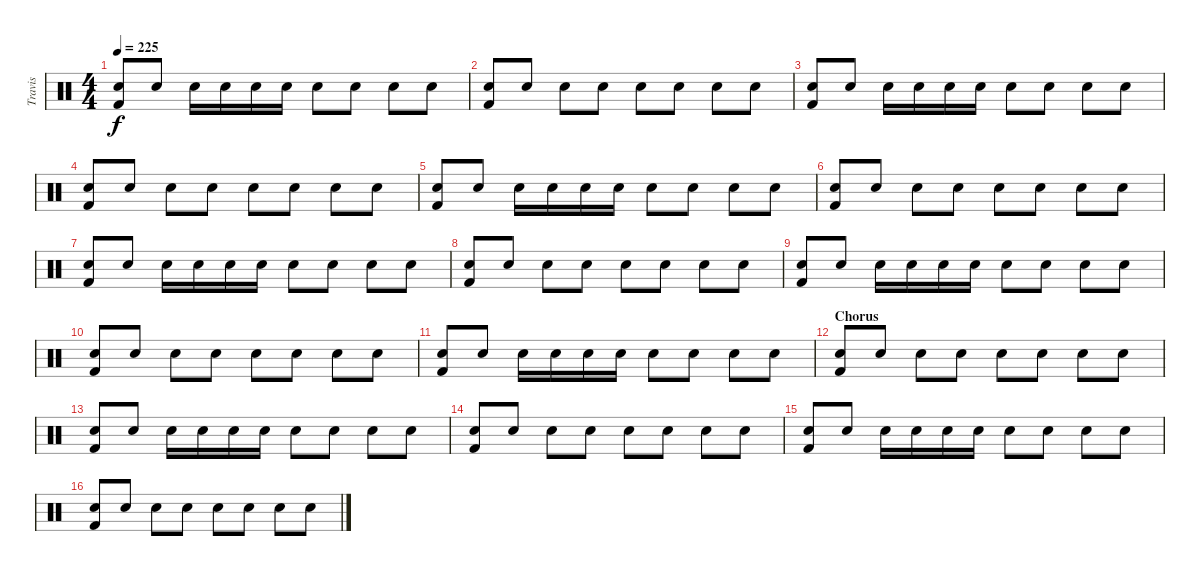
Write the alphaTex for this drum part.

\track ("Travis" "Travis") {instrument percussion}
\staff {score}
\articulation defaults
\ts (4 4)
\tempo 225
\clef neutral
\ks c
("Snare (hit) 2" "Kick (hit) 2").8{dy f} "Snare (hit) 2".8 "Snare (hit) 2".16 "Snare (hit) 2".16 "Snare (hit) 2".16 "Snare (hit) 2".16 "Electric Snare (hit)".8 "Electric Snare (hit)".8 "Snare (hit) 2".8 "Snare (hit) 2".8 |
("Snare (hit) 2" "Kick (hit) 2").8 "Snare (hit) 2".8 "Snare (hit) 2".8 "Electric Snare (hit)".8 "Snare (hit) 2".8 "Snare (hit) 2".8 "Electric Snare (hit)".8 "Snare (hit) 2".8 |
("Snare (hit) 2" "Kick (hit) 2").8 "Snare (hit) 2".8 "Snare (hit) 2".16 "Snare (hit) 2".16 "Snare (hit) 2".16 "Snare (hit) 2".16 "Electric Snare (hit)".8 "Electric Snare (hit)".8 "Snare (hit) 2".8 "Snare (hit) 2".8 |
("Snare (hit) 2" "Kick (hit) 2").8 "Snare (hit) 2".8 "Snare (hit) 2".8 "Electric Snare (hit)".8 "Snare (hit) 2".8 "Snare (hit) 2".8 "Electric Snare (hit)".8 "Snare (hit) 2".8 |
("Snare (hit) 2" "Kick (hit) 2").8 "Snare (hit) 2".8 "Snare (hit) 2".16 "Snare (hit) 2".16 "Snare (hit) 2".16 "Snare (hit) 2".16 "Electric Snare (hit)".8 "Electric Snare (hit)".8 "Snare (hit) 2".8 "Snare (hit) 2".8 |
("Snare (hit) 2" "Kick (hit) 2").8 "Snare (hit) 2".8 "Snare (hit) 2".8 "Electric Snare (hit)".8 "Snare (hit) 2".8 "Snare (hit) 2".8 "Electric Snare (hit)".8 "Snare (hit) 2".8 |
("Snare (hit) 2" "Kick (hit) 2").8 "Snare (hit) 2".8 "Snare (hit) 2".16 "Snare (hit) 2".16 "Snare (hit) 2".16 "Snare (hit) 2".16 "Electric Snare (hit)".8 "Electric Snare (hit)".8 "Snare (hit) 2".8 "Snare (hit) 2".8 |
("Snare (hit) 2" "Kick (hit) 2").8 "Snare (hit) 2".8 "Snare (hit) 2".8 "Electric Snare (hit)".8 "Snare (hit) 2".8 "Snare (hit) 2".8 "Electric Snare (hit)".8 "Snare (hit) 2".8 |
("Snare (hit) 2" "Kick (hit) 2").8 "Snare (hit) 2".8 "Snare (hit) 2".16 "Snare (hit) 2".16 "Snare (hit) 2".16 "Snare (hit) 2".16 "Electric Snare (hit)".8 "Electric Snare (hit)".8 "Snare (hit) 2".8 "Snare (hit) 2".8 |
("Snare (hit) 2" "Kick (hit) 2").8 "Snare (hit) 2".8 "Snare (hit) 2".8 "Electric Snare (hit)".8 "Snare (hit) 2".8 "Snare (hit) 2".8 "Electric Snare (hit)".8 "Snare (hit) 2".8 |
("Snare (hit) 2" "Kick (hit) 2").8 "Snare (hit) 2".8 "Snare (hit) 2".16 "Snare (hit) 2".16 "Snare (hit) 2".16 "Snare (hit) 2".16 "Electric Snare (hit)".8 "Electric Snare (hit)".8 "Snare (hit) 2".8 "Snare (hit) 2".8 |
\section ("" "Chorus")
("Snare (hit) 2" "Kick (hit) 2").8 "Snare (hit) 2".8 "Snare (hit) 2".8 "Electric Snare (hit)".8 "Snare (hit) 2".8 "Snare (hit) 2".8 "Electric Snare (hit)".8 "Snare (hit) 2".8 |
("Snare (hit) 2" "Kick (hit) 2").8 "Snare (hit) 2".8 "Snare (hit) 2".16 "Snare (hit) 2".16 "Snare (hit) 2".16 "Snare (hit) 2".16 "Electric Snare (hit)".8 "Electric Snare (hit)".8 "Snare (hit) 2".8 "Snare (hit) 2".8 |
("Snare (hit) 2" "Kick (hit) 2").8 "Snare (hit) 2".8 "Snare (hit) 2".8 "Electric Snare (hit)".8 "Snare (hit) 2".8 "Snare (hit) 2".8 "Electric Snare (hit)".8 "Snare (hit) 2".8 |
("Snare (hit) 2" "Kick (hit) 2").8 "Snare (hit) 2".8 "Snare (hit) 2".16 "Snare (hit) 2".16 "Snare (hit) 2".16 "Snare (hit) 2".16 "Electric Snare (hit)".8 "Electric Snare (hit)".8 "Snare (hit) 2".8 "Snare (hit) 2".8 |
("Snare (hit) 2" "Kick (hit) 2").8 "Snare (hit) 2".8 "Snare (hit) 2".8 "Electric Snare (hit)".8 "Snare (hit) 2".8 "Snare (hit) 2".8 "Electric Snare (hit)".8 "Snare (hit) 2".8
